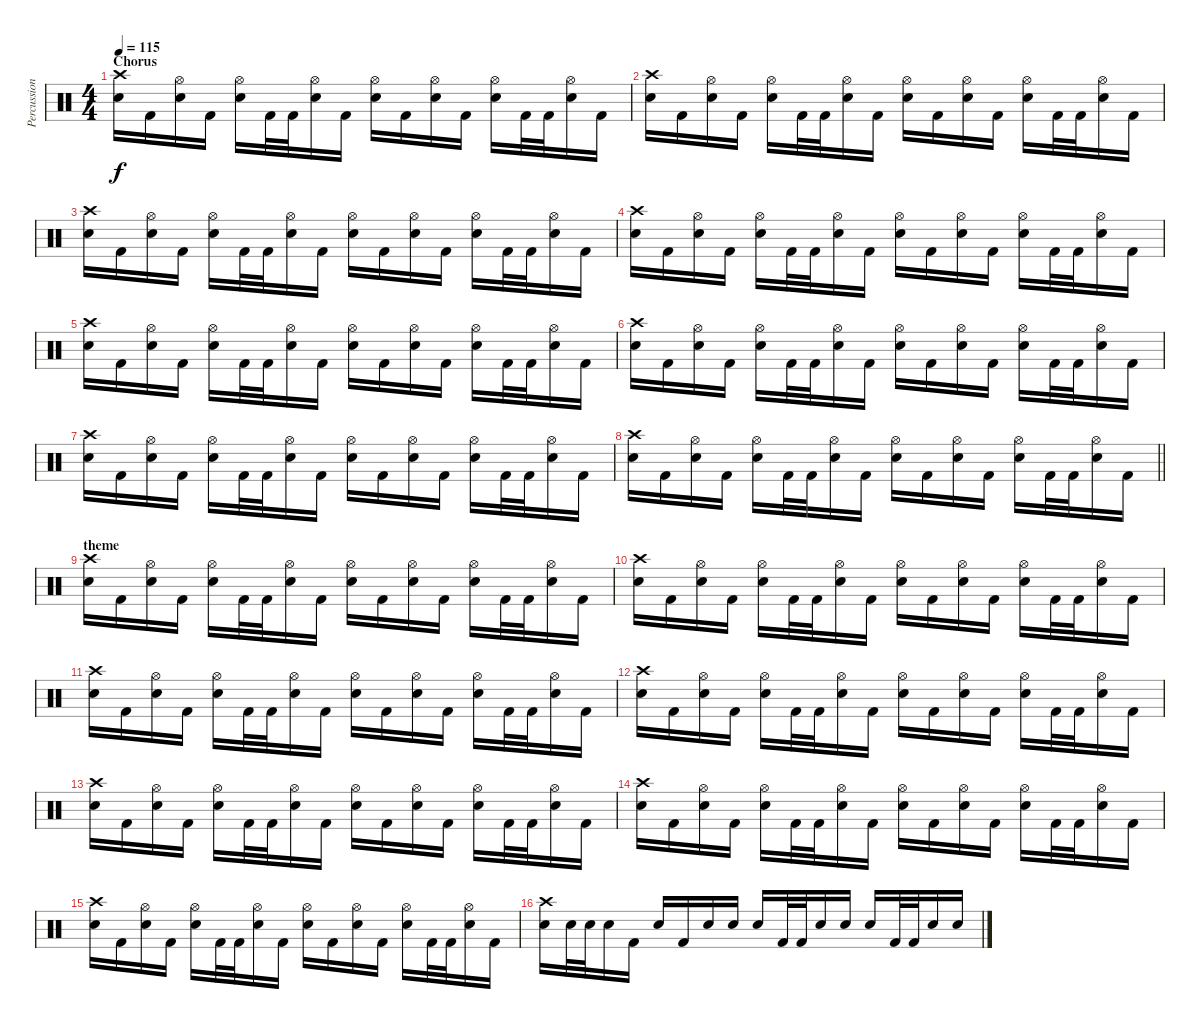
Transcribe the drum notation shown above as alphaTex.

\track ("Percussion" "Percussion") {instrument percussion}
\staff {score}
\articulation defaults
\ts (4 4)
\section ("" "Chorus")
\tempo 115
\clef neutral
\ks c
("Crash high (hit)" "Snare (hit) 2").16{dy f} "Kick (hit) 2".16 ("Hi-Hat (open)" "Snare (hit) 2").16 "Kick (hit) 2".16 ("Hi-Hat (open)" "Snare (hit) 2").16 "Kick (hit) 2".32 "Kick (hit) 2".32 ("Hi-Hat (open)" "Snare (hit) 2").16 "Kick (hit) 2".16 ("Hi-Hat (open)" "Snare (hit) 2").16 "Kick (hit) 2".16 ("Hi-Hat (open)" "Snare (hit) 2").16 "Kick (hit) 2".16 ("Hi-Hat (open)" "Snare (hit) 2").16 "Kick (hit) 2".32 "Kick (hit) 2".32 ("Hi-Hat (open)" "Snare (hit) 2").16 "Kick (hit) 2".16 |
("Crash high (hit)" "Snare (hit) 2").16 "Kick (hit) 2".16 ("Hi-Hat (open)" "Snare (hit) 2").16 "Kick (hit) 2".16 ("Hi-Hat (open)" "Snare (hit) 2").16 "Kick (hit) 2".32 "Kick (hit) 2".32 ("Hi-Hat (open)" "Snare (hit) 2").16 "Kick (hit) 2".16 ("Hi-Hat (open)" "Snare (hit) 2").16 "Kick (hit) 2".16 ("Hi-Hat (open)" "Snare (hit) 2").16 "Kick (hit) 2".16 ("Hi-Hat (open)" "Snare (hit) 2").16 "Kick (hit) 2".32 "Kick (hit) 2".32 ("Hi-Hat (open)" "Snare (hit) 2").16 "Kick (hit) 2".16 |
("Crash high (hit)" "Snare (hit) 2").16 "Kick (hit) 2".16 ("Hi-Hat (open)" "Snare (hit) 2").16 "Kick (hit) 2".16 ("Hi-Hat (open)" "Snare (hit) 2").16 "Kick (hit) 2".32 "Kick (hit) 2".32 ("Hi-Hat (open)" "Snare (hit) 2").16 "Kick (hit) 2".16 ("Hi-Hat (open)" "Snare (hit) 2").16 "Kick (hit) 2".16 ("Hi-Hat (open)" "Snare (hit) 2").16 "Kick (hit) 2".16 ("Hi-Hat (open)" "Snare (hit) 2").16 "Kick (hit) 2".32 "Kick (hit) 2".32 ("Hi-Hat (open)" "Snare (hit) 2").16 "Kick (hit) 2".16 |
("Crash high (hit)" "Snare (hit) 2").16 "Kick (hit) 2".16 ("Hi-Hat (open)" "Snare (hit) 2").16 "Kick (hit) 2".16 ("Hi-Hat (open)" "Snare (hit) 2").16 "Kick (hit) 2".32 "Kick (hit) 2".32 ("Hi-Hat (open)" "Snare (hit) 2").16 "Kick (hit) 2".16 ("Hi-Hat (open)" "Snare (hit) 2").16 "Kick (hit) 2".16 ("Hi-Hat (open)" "Snare (hit) 2").16 "Kick (hit) 2".16 ("Hi-Hat (open)" "Snare (hit) 2").16 "Kick (hit) 2".32 "Kick (hit) 2".32 ("Hi-Hat (open)" "Snare (hit) 2").16 "Kick (hit) 2".16 |
("Crash high (hit)" "Snare (hit) 2").16 "Kick (hit) 2".16 ("Hi-Hat (open)" "Snare (hit) 2").16 "Kick (hit) 2".16 ("Hi-Hat (open)" "Snare (hit) 2").16 "Kick (hit) 2".32 "Kick (hit) 2".32 ("Hi-Hat (open)" "Snare (hit) 2").16 "Kick (hit) 2".16 ("Hi-Hat (open)" "Snare (hit) 2").16 "Kick (hit) 2".16 ("Hi-Hat (open)" "Snare (hit) 2").16 "Kick (hit) 2".16 ("Hi-Hat (open)" "Snare (hit) 2").16 "Kick (hit) 2".32 "Kick (hit) 2".32 ("Hi-Hat (open)" "Snare (hit) 2").16 "Kick (hit) 2".16 |
("Crash high (hit)" "Snare (hit) 2").16 "Kick (hit) 2".16 ("Hi-Hat (open)" "Snare (hit) 2").16 "Kick (hit) 2".16 ("Hi-Hat (open)" "Snare (hit) 2").16 "Kick (hit) 2".32 "Kick (hit) 2".32 ("Hi-Hat (open)" "Snare (hit) 2").16 "Kick (hit) 2".16 ("Hi-Hat (open)" "Snare (hit) 2").16 "Kick (hit) 2".16 ("Hi-Hat (open)" "Snare (hit) 2").16 "Kick (hit) 2".16 ("Hi-Hat (open)" "Snare (hit) 2").16 "Kick (hit) 2".32 "Kick (hit) 2".32 ("Hi-Hat (open)" "Snare (hit) 2").16 "Kick (hit) 2".16 |
("Crash high (hit)" "Snare (hit) 2").16 "Kick (hit) 2".16 ("Hi-Hat (open)" "Snare (hit) 2").16 "Kick (hit) 2".16 ("Hi-Hat (open)" "Snare (hit) 2").16 "Kick (hit) 2".32 "Kick (hit) 2".32 ("Hi-Hat (open)" "Snare (hit) 2").16 "Kick (hit) 2".16 ("Hi-Hat (open)" "Snare (hit) 2").16 "Kick (hit) 2".16 ("Hi-Hat (open)" "Snare (hit) 2").16 "Kick (hit) 2".16 ("Hi-Hat (open)" "Snare (hit) 2").16 "Kick (hit) 2".32 "Kick (hit) 2".32 ("Hi-Hat (open)" "Snare (hit) 2").16 "Kick (hit) 2".16 |
\barLineRight lightlight
("Crash high (hit)" "Snare (hit) 2").16 "Kick (hit) 2".16 ("Hi-Hat (open)" "Snare (hit) 2").16 "Kick (hit) 2".16 ("Hi-Hat (open)" "Snare (hit) 2").16 "Kick (hit) 2".32 "Kick (hit) 2".32 ("Hi-Hat (open)" "Snare (hit) 2").16 "Kick (hit) 2".16 ("Hi-Hat (open)" "Snare (hit) 2").16 "Kick (hit) 2".16 ("Hi-Hat (open)" "Snare (hit) 2").16 "Kick (hit) 2".16 ("Hi-Hat (open)" "Snare (hit) 2").16 "Kick (hit) 2".32 "Kick (hit) 2".32 ("Hi-Hat (open)" "Snare (hit) 2").16 "Kick (hit) 2".16 |
\section ("" "theme")
("Crash high (hit)" "Snare (hit) 2").16 "Kick (hit) 2".16 ("Hi-Hat (open)" "Snare (hit) 2").16 "Kick (hit) 2".16 ("Hi-Hat (open)" "Snare (hit) 2").16 "Kick (hit) 2".32 "Kick (hit) 2".32 ("Hi-Hat (open)" "Snare (hit) 2").16 "Kick (hit) 2".16 ("Hi-Hat (open)" "Snare (hit) 2").16 "Kick (hit) 2".16 ("Hi-Hat (open)" "Snare (hit) 2").16 "Kick (hit) 2".16 ("Hi-Hat (open)" "Snare (hit) 2").16 "Kick (hit) 2".32 "Kick (hit) 2".32 ("Hi-Hat (open)" "Snare (hit) 2").16 "Kick (hit) 2".16 |
("Crash high (hit)" "Snare (hit) 2").16 "Kick (hit) 2".16 ("Hi-Hat (open)" "Snare (hit) 2").16 "Kick (hit) 2".16 ("Hi-Hat (open)" "Snare (hit) 2").16 "Kick (hit) 2".32 "Kick (hit) 2".32 ("Hi-Hat (open)" "Snare (hit) 2").16 "Kick (hit) 2".16 ("Hi-Hat (open)" "Snare (hit) 2").16 "Kick (hit) 2".16 ("Hi-Hat (open)" "Snare (hit) 2").16 "Kick (hit) 2".16 ("Hi-Hat (open)" "Snare (hit) 2").16 "Kick (hit) 2".32 "Kick (hit) 2".32 ("Hi-Hat (open)" "Snare (hit) 2").16 "Kick (hit) 2".16 |
("Crash high (hit)" "Snare (hit) 2").16 "Kick (hit) 2".16 ("Hi-Hat (open)" "Snare (hit) 2").16 "Kick (hit) 2".16 ("Hi-Hat (open)" "Snare (hit) 2").16 "Kick (hit) 2".32 "Kick (hit) 2".32 ("Hi-Hat (open)" "Snare (hit) 2").16 "Kick (hit) 2".16 ("Hi-Hat (open)" "Snare (hit) 2").16 "Kick (hit) 2".16 ("Hi-Hat (open)" "Snare (hit) 2").16 "Kick (hit) 2".16 ("Hi-Hat (open)" "Snare (hit) 2").16 "Kick (hit) 2".32 "Kick (hit) 2".32 ("Hi-Hat (open)" "Snare (hit) 2").16 "Kick (hit) 2".16 |
("Crash high (hit)" "Snare (hit) 2").16 "Kick (hit) 2".16 ("Hi-Hat (open)" "Snare (hit) 2").16 "Kick (hit) 2".16 ("Hi-Hat (open)" "Snare (hit) 2").16 "Kick (hit) 2".32 "Kick (hit) 2".32 ("Hi-Hat (open)" "Snare (hit) 2").16 "Kick (hit) 2".16 ("Hi-Hat (open)" "Snare (hit) 2").16 "Kick (hit) 2".16 ("Hi-Hat (open)" "Snare (hit) 2").16 "Kick (hit) 2".16 ("Hi-Hat (open)" "Snare (hit) 2").16 "Kick (hit) 2".32 "Kick (hit) 2".32 ("Hi-Hat (open)" "Snare (hit) 2").16 "Kick (hit) 2".16 |
("Crash high (hit)" "Snare (hit) 2").16 "Kick (hit) 2".16 ("Hi-Hat (open)" "Snare (hit) 2").16 "Kick (hit) 2".16 ("Hi-Hat (open)" "Snare (hit) 2").16 "Kick (hit) 2".32 "Kick (hit) 2".32 ("Hi-Hat (open)" "Snare (hit) 2").16 "Kick (hit) 2".16 ("Hi-Hat (open)" "Snare (hit) 2").16 "Kick (hit) 2".16 ("Hi-Hat (open)" "Snare (hit) 2").16 "Kick (hit) 2".16 ("Hi-Hat (open)" "Snare (hit) 2").16 "Kick (hit) 2".32 "Kick (hit) 2".32 ("Hi-Hat (open)" "Snare (hit) 2").16 "Kick (hit) 2".16 |
("Crash high (hit)" "Snare (hit) 2").16 "Kick (hit) 2".16 ("Hi-Hat (open)" "Snare (hit) 2").16 "Kick (hit) 2".16 ("Hi-Hat (open)" "Snare (hit) 2").16 "Kick (hit) 2".32 "Kick (hit) 2".32 ("Hi-Hat (open)" "Snare (hit) 2").16 "Kick (hit) 2".16 ("Hi-Hat (open)" "Snare (hit) 2").16 "Kick (hit) 2".16 ("Hi-Hat (open)" "Snare (hit) 2").16 "Kick (hit) 2".16 ("Hi-Hat (open)" "Snare (hit) 2").16 "Kick (hit) 2".32 "Kick (hit) 2".32 ("Hi-Hat (open)" "Snare (hit) 2").16 "Kick (hit) 2".16 |
("Crash high (hit)" "Snare (hit) 2").16 "Kick (hit) 2".16 ("Hi-Hat (open)" "Snare (hit) 2").16 "Kick (hit) 2".16 ("Hi-Hat (open)" "Snare (hit) 2").16 "Kick (hit) 2".32 "Kick (hit) 2".32 ("Hi-Hat (open)" "Snare (hit) 2").16 "Kick (hit) 2".16 ("Hi-Hat (open)" "Snare (hit) 2").16 "Kick (hit) 2".16 ("Hi-Hat (open)" "Snare (hit) 2").16 "Kick (hit) 2".16 ("Hi-Hat (open)" "Snare (hit) 2").16 "Kick (hit) 2".32 "Kick (hit) 2".32 ("Hi-Hat (open)" "Snare (hit) 2").16 "Kick (hit) 2".16 |
("Crash high (hit)" "Snare (hit) 2").16 "Snare (hit) 2".32 "Snare (hit) 2".32 "Snare (hit) 2".16 "Kick (hit) 2".16 "Snare (hit) 2".16 "Kick (hit) 2".16 "Snare (hit) 2".16 "Snare (hit) 2".16 "Snare (hit) 2".16 "Kick (hit) 2".32 "Kick (hit) 2".32 "Snare (hit) 2".16 "Snare (hit) 2".16 "Snare (hit) 2".16 "Kick (hit) 2".32 "Kick (hit) 2".32 "Snare (hit) 2".16 "Snare (hit) 2".16
